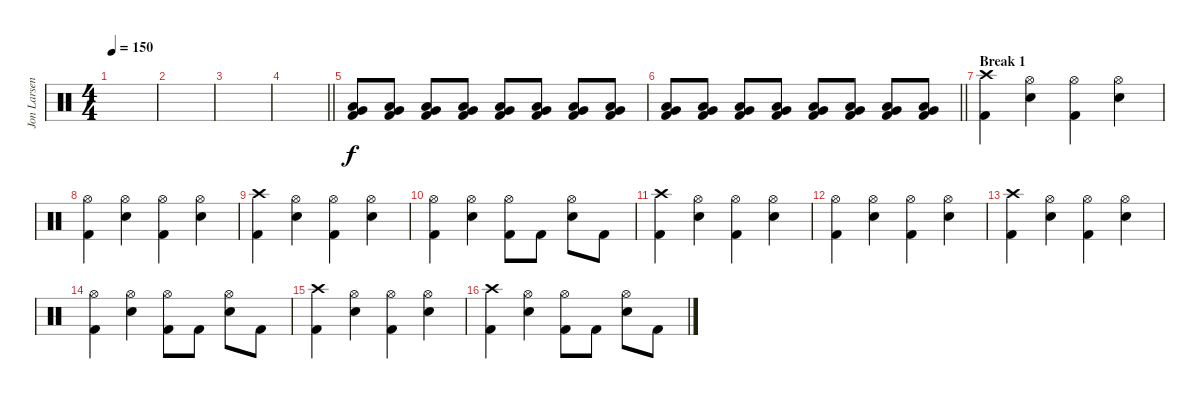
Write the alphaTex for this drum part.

\track ("Jon Larsen" "Jon Larsen") {instrument percussion bank 10}
\staff {score}
\articulation defaults
\ts (4 4)
\tempo 150
\clef neutral
\ks c
|
|
|
\barLineRight lightlight
|
("Very Low Tom (hit)" "Low Floor Tom (hit)" "Kick (hit) 2").8 ("Very Low Tom (hit)" "Low Floor Tom (hit)" "Kick (hit) 2").8 ("Very Low Tom (hit)" "Low Floor Tom (hit)" "Kick (hit) 2").8 ("Very Low Tom (hit)" "Low Floor Tom (hit)" "Kick (hit) 2").8 ("Very Low Tom (hit)" "Low Floor Tom (hit)" "Kick (hit) 2").8 ("Very Low Tom (hit)" "Low Floor Tom (hit)" "Kick (hit) 2").8 ("Very Low Tom (hit)" "Low Floor Tom (hit)" "Kick (hit) 2").8 ("Very Low Tom (hit)" "Low Floor Tom (hit)" "Kick (hit) 2").8 |
\barLineRight lightlight
("Very Low Tom (hit)" "Low Floor Tom (hit)" "Kick (hit) 2").8 ("Very Low Tom (hit)" "Low Floor Tom (hit)" "Kick (hit) 2").8 ("Very Low Tom (hit)" "Low Floor Tom (hit)" "Kick (hit) 2").8 ("Very Low Tom (hit)" "Low Floor Tom (hit)" "Kick (hit) 2").8 ("Very Low Tom (hit)" "Low Floor Tom (hit)" "Kick (hit) 2").8 ("Very Low Tom (hit)" "Low Floor Tom (hit)" "Kick (hit) 2").8 ("Very Low Tom (hit)" "Low Floor Tom (hit)" "Kick (hit) 2").8 ("Very Low Tom (hit)" "Low Floor Tom (hit)" "Kick (hit) 2").8 |
\section ("" "Break 1")
("Crash high (hit)" "Kick (hit) 2").4 ("Hi-Hat (open)" "Electric Snare (hit)").4 ("Hi-Hat (open)" "Kick (hit) 2").4 ("Hi-Hat (open)" "Electric Snare (hit)").4 |
("Hi-Hat (open)" "Kick (hit) 2").4 ("Hi-Hat (open)" "Electric Snare (hit)").4 ("Hi-Hat (open)" "Kick (hit) 2").4 ("Hi-Hat (open)" "Electric Snare (hit)").4 |
("Crash high (hit)" "Kick (hit) 2").4 ("Hi-Hat (open)" "Electric Snare (hit)").4 ("Hi-Hat (open)" "Kick (hit) 2").4 ("Hi-Hat (open)" "Electric Snare (hit)").4 |
("Hi-Hat (open)" "Kick (hit) 2").4 ("Hi-Hat (open)" "Electric Snare (hit)").4 ("Hi-Hat (open)" "Kick (hit) 2").8 "Kick (hit) 2".8 ("Hi-Hat (open)" "Electric Snare (hit)").8 "Kick (hit) 2".8 |
("Crash high (hit)" "Kick (hit) 2").4 ("Hi-Hat (open)" "Electric Snare (hit)").4 ("Hi-Hat (open)" "Kick (hit) 2").4 ("Hi-Hat (open)" "Electric Snare (hit)").4 |
("Hi-Hat (open)" "Kick (hit) 2").4 ("Hi-Hat (open)" "Electric Snare (hit)").4 ("Hi-Hat (open)" "Kick (hit) 2").4 ("Hi-Hat (open)" "Electric Snare (hit)").4 |
("Crash high (hit)" "Kick (hit) 2").4 ("Hi-Hat (open)" "Electric Snare (hit)").4 ("Hi-Hat (open)" "Kick (hit) 2").4 ("Hi-Hat (open)" "Electric Snare (hit)").4 |
("Hi-Hat (open)" "Kick (hit) 2").4 ("Hi-Hat (open)" "Electric Snare (hit)").4 ("Hi-Hat (open)" "Kick (hit) 2").8 "Kick (hit) 2".8 ("Hi-Hat (open)" "Electric Snare (hit)").8 "Kick (hit) 2".8 |
("Crash high (hit)" "Kick (hit) 2").4 ("Hi-Hat (open)" "Electric Snare (hit)").4 ("Hi-Hat (open)" "Kick (hit) 2").4 ("Hi-Hat (open)" "Electric Snare (hit)").4 |
("Crash high (hit)" "Kick (hit) 2").4 ("Hi-Hat (open)" "Electric Snare (hit)").4 ("Hi-Hat (open)" "Kick (hit) 2").8 "Kick (hit) 2".8 ("Hi-Hat (open)" "Electric Snare (hit)").8 "Kick (hit) 2".8
